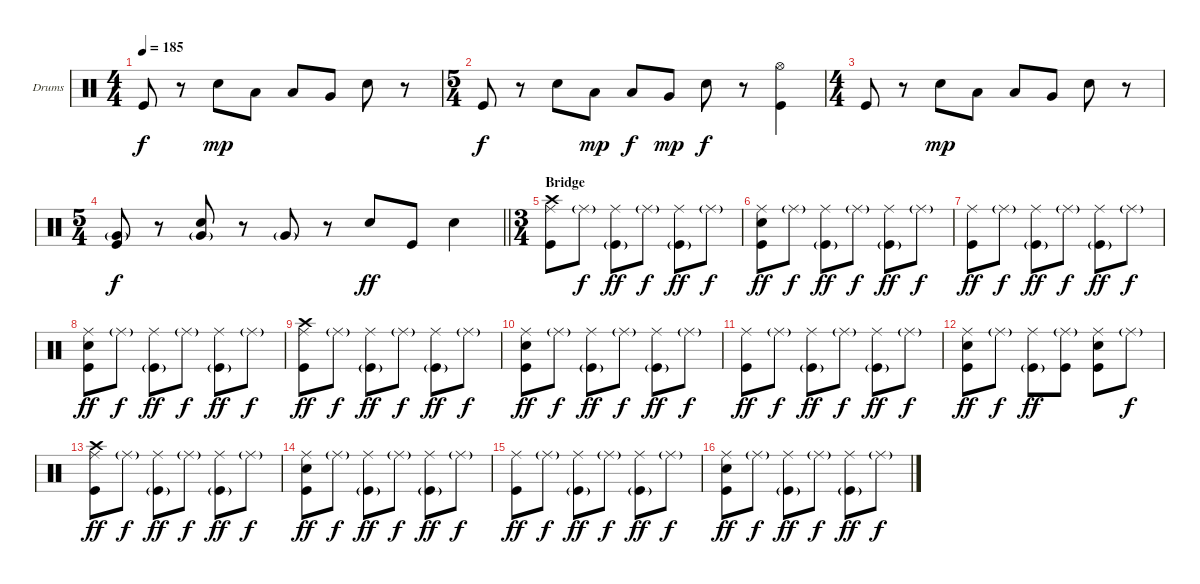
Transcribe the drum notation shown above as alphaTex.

\bracketExtendMode groupsimilarinstruments
\firstSystemTrackNameOrientation horizontal
\otherSystemsTrackNameOrientation horizontal
\track ("Drumkit" "Drums") {instrument percussion}
\staff {score}
\articulation defaults
\ts (4 4)
\beaming (8 2 2 2 2)
\tempo 185
\clef neutral
\ks c "Kick (hit)".8{dy f}
r.8 "Snare (hit) 2".8{dy mp} "Low Tom (hit)".8 "Low Tom (hit)".8 "Very Low Tom (hit)".8 "Snare (hit) 2".8 r.8 |
\ts (5 4)
\beaming (8 2 2 2 4)
"Kick (hit)".8{dy f} r.8 "Snare (hit) 2".8 "Low Tom (hit)".8{dy mp} "Low Tom (hit)".8{dy f} "Very Low Tom (hit)".8{dy mp} "Snare (hit) 2".8{dy f} r.8 ("Hi-Hat (open)" "Kick (hit)").4 |
\ts (4 4)
\beaming (8 2 2 2 2)
"Kick (hit)".8 r.8 "Snare (hit) 2".8{dy mp} "Low Tom (hit)".8 "Low Tom (hit)".8 "Very Low Tom (hit)".8 "Snare (hit) 2".8 r.8 |
\ts (5 4)
\beaming (8 2 2 2 4)
\barLineRight lightlight
("Very Low Tom (hit)"{g} "Kick (hit)").8{dy f} r.8 ("Very Low Tom (hit)"{g} "Snare (hit) 2").8 r.8 "Very Low Tom (hit)"{g}.8 r.8 "Snare (hit) 2".8{dy ff} "Kick (hit)".8 "Snare (hit) 2".4 |
\ts (3 4)
\beaming (8 2 2 2)
\section ("" "Bridge")
("Crash high (hit)" "Ride (middle)" "Kick (hit)").8 "Ride (middle)"{g}.8{dy f} ("Ride (middle)" "Kick (hit)"{g}).8{dy ff} "Ride (middle)"{g}.8{dy f} ("Ride (middle)" "Kick (hit)"{g}).8{dy ff} "Ride (middle)"{g}.8{dy f} |
("Ride (middle)" "Snare (hit) 2" "Kick (hit)").8{dy ff} "Ride (middle)"{g}.8{dy f} ("Ride (middle)" "Kick (hit)"{g}).8{dy ff} "Ride (middle)"{g}.8{dy f} ("Ride (middle)" "Kick (hit)"{g}).8{dy ff} "Ride (middle)"{g}.8{dy f} |
("Ride (middle)" "Kick (hit)").8{dy ff} "Ride (middle)"{g}.8{dy f} ("Ride (middle)" "Kick (hit)"{g}).8{dy ff} "Ride (middle)"{g}.8{dy f} ("Ride (middle)" "Kick (hit)"{g}).8{dy ff} "Ride (middle)"{g}.8{dy f} |
("Ride (middle)" "Snare (hit) 2" "Kick (hit)").8{dy ff} "Ride (middle)"{g}.8{dy f} ("Ride (middle)" "Kick (hit)"{g}).8{dy ff} "Ride (middle)"{g}.8{dy f} ("Ride (middle)" "Kick (hit)"{g}).8{dy ff} "Ride (middle)"{g}.8{dy f} |
("Crash high (hit)" "Ride (middle)" "Kick (hit)").8{dy ff} "Ride (middle)"{g}.8{dy f} ("Ride (middle)" "Kick (hit)"{g}).8{dy ff} "Ride (middle)"{g}.8{dy f} ("Ride (middle)" "Kick (hit)"{g}).8{dy ff} "Ride (middle)"{g}.8{dy f} |
("Ride (middle)" "Snare (hit) 2" "Kick (hit)").8{dy ff} "Ride (middle)"{g}.8{dy f} ("Ride (middle)" "Kick (hit)"{g}).8{dy ff} "Ride (middle)"{g}.8{dy f} ("Ride (middle)" "Kick (hit)"{g}).8{dy ff} "Ride (middle)"{g}.8{dy f} |
("Ride (middle)" "Kick (hit)").8{dy ff} "Ride (middle)"{g}.8{dy f} ("Ride (middle)" "Kick (hit)"{g}).8{dy ff} "Ride (middle)"{g}.8{dy f} ("Ride (middle)" "Kick (hit)"{g}).8{dy ff} "Ride (middle)"{g}.8{dy f} |
("Ride (middle)" "Snare (hit) 2" "Kick (hit)").8{dy ff} "Ride (middle)"{g}.8{dy f} ("Ride (middle)" "Kick (hit)"{g}).8{dy ff} ("Ride (middle)"{g} "Kick (hit)").8 ("Ride (middle)" "Snare (hit) 2" "Kick (hit)").8 "Ride (middle)"{g}.8{dy f} |
("Crash high (hit)" "Ride (middle)" "Kick (hit)").8{dy ff} "Ride (middle)"{g}.8{dy f} ("Ride (middle)" "Kick (hit)"{g}).8{dy ff} "Ride (middle)"{g}.8{dy f} ("Ride (middle)" "Kick (hit)"{g}).8{dy ff} "Ride (middle)"{g}.8{dy f} |
("Ride (middle)" "Snare (hit) 2" "Kick (hit)").8{dy ff} "Ride (middle)"{g}.8{dy f} ("Ride (middle)" "Kick (hit)"{g}).8{dy ff} "Ride (middle)"{g}.8{dy f} ("Ride (middle)" "Kick (hit)"{g}).8{dy ff} "Ride (middle)"{g}.8{dy f} |
("Ride (middle)" "Kick (hit)").8{dy ff} "Ride (middle)"{g}.8{dy f} ("Ride (middle)" "Kick (hit)"{g}).8{dy ff} "Ride (middle)"{g}.8{dy f} ("Ride (middle)" "Kick (hit)"{g}).8{dy ff} "Ride (middle)"{g}.8{dy f} |
("Ride (middle)" "Snare (hit) 2" "Kick (hit)").8{dy ff} "Ride (middle)"{g}.8{dy f} ("Ride (middle)" "Kick (hit)"{g}).8{dy ff} "Ride (middle)"{g}.8{dy f} ("Ride (middle)" "Kick (hit)"{g}).8{dy ff} "Ride (middle)"{g}.8{dy f}
